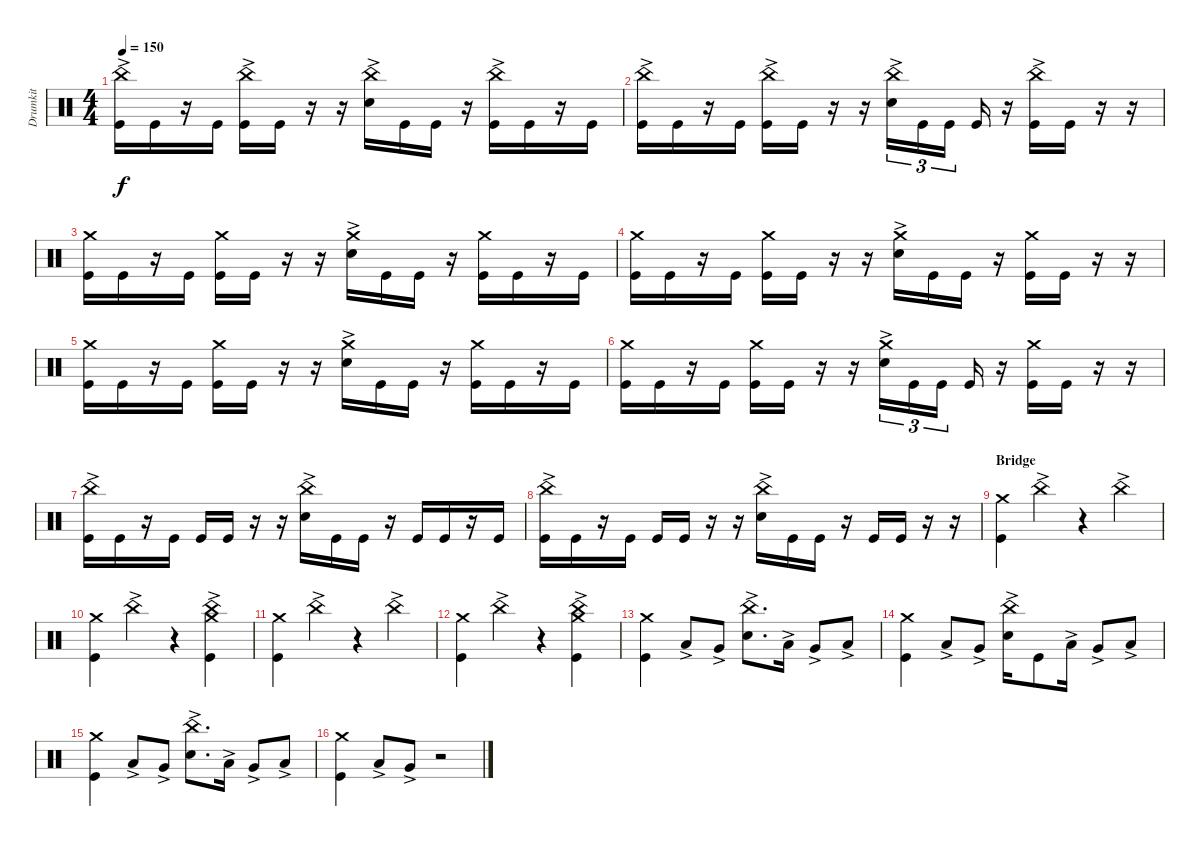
\track ("Drumkit" "Drumkit") {instrument percussion}
\staff {score}
\articulation defaults
\ts (4 4)
\tempo 150
\clef neutral
\ks c
("Kick (hit)" "China (hit)"{ac}).16{dy f} "Kick (hit)".16 r.16 "Kick (hit)".16 ("Kick (hit)" "China (hit)"{ac}).16 "Kick (hit)".16 r.16 r.16 ("Snare (hit) 2"{ac} "China (hit)"{ac}).16 "Kick (hit)".16 "Kick (hit)".16 r.16 ("Kick (hit)" "China (hit)"{ac}).16 "Kick (hit)".16 r.16 "Kick (hit)".16 |
("Kick (hit)" "China (hit)"{ac}).16 "Kick (hit)".16 r.16 "Kick (hit)".16 ("Kick (hit)" "China (hit)"{ac}).16 "Kick (hit)".16 r.16 r.16 ("Snare (hit) 2"{ac} "China (hit)"{ac}).16{tu (3 2)} "Kick (hit)".16{tu (3 2)} "Kick (hit)".16{tu (3 2)} "Kick (hit)".16 r.16 ("Kick (hit)" "China (hit)"{ac}).16 "Kick (hit)".16 r.16 r.16 |
("Crash medium (hit)" "Kick (hit)").16 "Kick (hit)".16 r.16 "Kick (hit)".16 ("Crash medium (hit)" "Kick (hit)").16 "Kick (hit)".16 r.16 r.16 ("Crash medium (hit)" "Snare (hit) 2"{ac}).16 "Kick (hit)".16 "Kick (hit)".16 r.16 ("Crash medium (hit)" "Kick (hit)").16 "Kick (hit)".16 r.16 "Kick (hit)".16 |
("Crash medium (hit)" "Kick (hit)").16 "Kick (hit)".16 r.16 "Kick (hit)".16 ("Crash medium (hit)" "Kick (hit)").16 "Kick (hit)".16 r.16 r.16 ("Crash medium (hit)" "Snare (hit) 2"{ac}).16 "Kick (hit)".16 "Kick (hit)".16 r.16 ("Crash medium (hit)" "Kick (hit)").16 "Kick (hit)".16 r.16 r.16 |
("Crash medium (hit)" "Kick (hit)").16 "Kick (hit)".16 r.16 "Kick (hit)".16 ("Crash medium (hit)" "Kick (hit)").16 "Kick (hit)".16 r.16 r.16 ("Crash medium (hit)" "Snare (hit) 2"{ac}).16 "Kick (hit)".16 "Kick (hit)".16 r.16 ("Crash medium (hit)" "Kick (hit)").16 "Kick (hit)".16 r.16 "Kick (hit)".16 |
("Crash medium (hit)" "Kick (hit)").16 "Kick (hit)".16 r.16 "Kick (hit)".16 ("Crash medium (hit)" "Kick (hit)").16 "Kick (hit)".16 r.16 r.16 ("Crash medium (hit)" "Snare (hit) 2"{ac}).16{tu (3 2)} "Kick (hit)".16{tu (3 2)} "Kick (hit)".16{tu (3 2)} "Kick (hit)".16 r.16 ("Kick (hit)" "Crash medium (hit)").16 "Kick (hit)".16 r.16 r.16 |
("Kick (hit)" "China (hit)"{ac}).16 "Kick (hit)".16 r.16 "Kick (hit)".16 "Kick (hit)".16 "Kick (hit)".16 r.16 r.16 ("Snare (hit) 2"{ac} "China (hit)"{ac}).16 "Kick (hit)".16 "Kick (hit)".16 r.16 "Kick (hit)".16 "Kick (hit)".16 r.16 "Kick (hit)".16 |
("Kick (hit)" "China (hit)"{ac}).16 "Kick (hit)".16 r.16 "Kick (hit)".16 "Kick (hit)".16 "Kick (hit)".16 r.16 r.16 ("Snare (hit) 2"{ac} "China (hit)"{ac}).16 "Kick (hit)".16 "Kick (hit)".16 r.16 "Kick (hit)".16 "Kick (hit)".16 r.16 r.16 |
\section ("" "Bridge")
("Kick (hit)" "Crash medium (hit)").4 "China (hit)"{ac}.4 r.4 "China (hit)"{ac}.4 |
("Crash medium (hit)" "Kick (hit)").4 "China (hit)"{ac}.4 r.4 ("China (hit)"{ac} "Kick (hit)" "Crash medium (hit)").4 |
("Crash medium (hit)" "Kick (hit)").4 "China (hit)"{ac}.4 r.4 "China (hit)"{ac}.4 |
("Crash medium (hit)" "Kick (hit)").4 "China (hit)"{ac}.4 r.4 ("China (hit)"{ac} "Kick (hit)" "Crash medium (hit)").4 |
("Kick (hit)" "Crash medium (hit)").4 "Low Tom (hit)"{ac}.8 "Very Low Tom (hit)"{ac}.8 ("Snare (hit) 2"{ac} "China (hit)"{ac}).8{d} "Low Tom (hit)"{ac}.16 "Very Low Tom (hit)"{ac}.8 "Low Floor Tom (hit)"{ac}.8 |
("Kick (hit)" "Crash medium (hit)").4 "Low Tom (hit)"{ac}.8 "Very Low Tom (hit)"{ac}.8 ("Snare (hit) 2"{ac} "China (hit)"{ac}).16 "Kick (hit)".8 "Low Tom (hit)"{ac}.16 "Very Low Tom (hit)"{ac}.8 "Low Floor Tom (hit)"{ac}.8 |
("Kick (hit)" "Crash medium (hit)").4 "Low Tom (hit)"{ac}.8 "Very Low Tom (hit)"{ac}.8 ("Snare (hit) 2"{ac} "China (hit)"{ac}).8{d} "Low Tom (hit)"{ac}.16 "Very Low Tom (hit)"{ac}.8 "Low Floor Tom (hit)"{ac}.8 |
("Kick (hit)" "Crash medium (hit)").4 "Low Tom (hit)"{ac}.8 "Very Low Tom (hit)"{ac}.8 r.2
